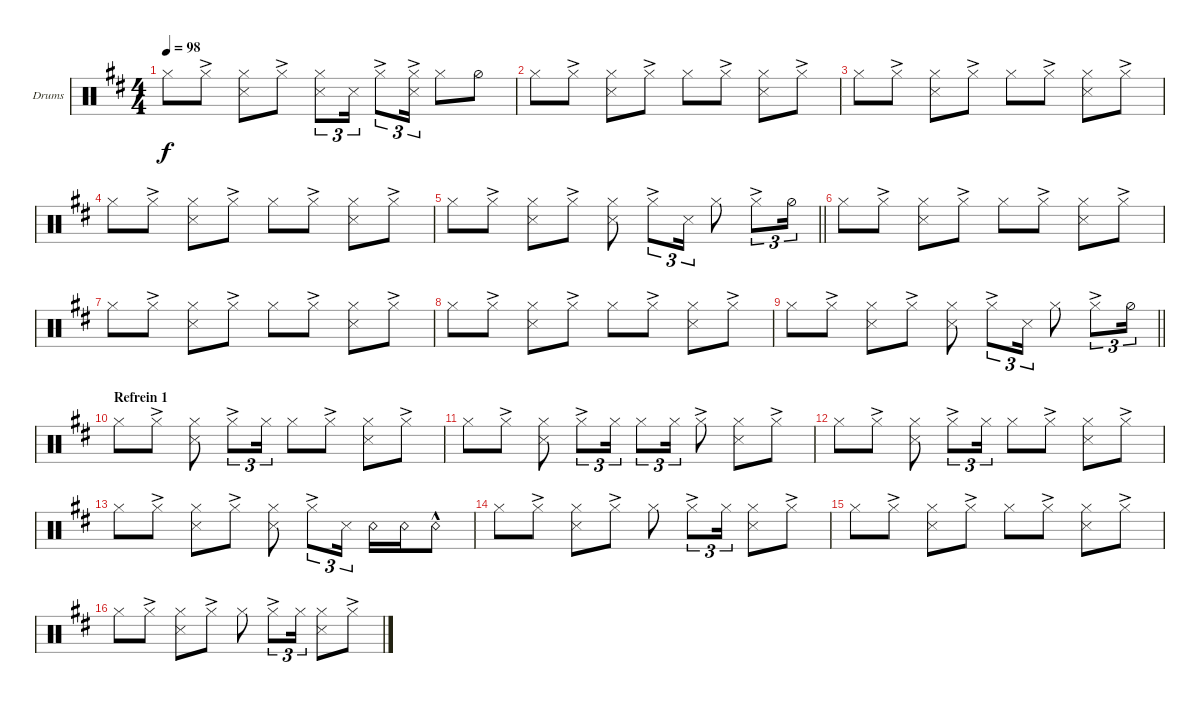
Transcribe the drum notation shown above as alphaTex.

\bracketExtendMode groupsimilarinstruments
\firstSystemTrackNameOrientation horizontal
\otherSystemsTrackNameOrientation horizontal
\track ("Drumkit" "Drums") {instrument percussion}
\staff {score}
\articulation defaults
\ts (4 4)
\tempo 98
\clef neutral
\ks d "Hi-Hat (closed)".8{dy f} "Hi-Hat (closed)"{ac}.8
("Snare (side stick) 3" "Hi-Hat (closed)").8 "Hi-Hat (closed)"{ac}.8 ("Hi-Hat (closed)" "Snare (side stick) 3").8{tu (3 2)} "Snare (side stick) 3".16{tu (3 2)} "Hi-Hat (closed)"{ac}.8{tu (3 2)} ("Hi-Hat (closed)"{ac} "Snare (side stick) 3").16{tu (3 2)} "Hi-Hat (closed)".8 "Hi-Hat (half)".8 |
"Hi-Hat (closed)".8 "Hi-Hat (closed)"{ac}.8 ("Snare (side stick) 3" "Hi-Hat (closed)").8 "Hi-Hat (closed)"{ac}.8 "Hi-Hat (closed)".8 "Hi-Hat (closed)"{ac}.8 ("Snare (side stick) 3" "Hi-Hat (closed)").8 "Hi-Hat (closed)"{ac}.8 |
"Hi-Hat (closed)".8 "Hi-Hat (closed)"{ac}.8 ("Snare (side stick) 3" "Hi-Hat (closed)").8 "Hi-Hat (closed)"{ac}.8 "Hi-Hat (closed)".8 "Hi-Hat (closed)"{ac}.8 ("Snare (side stick) 3" "Hi-Hat (closed)").8 "Hi-Hat (closed)"{ac}.8 |
"Hi-Hat (closed)".8 "Hi-Hat (closed)"{ac}.8 ("Snare (side stick) 3" "Hi-Hat (closed)").8 "Hi-Hat (closed)"{ac}.8 "Hi-Hat (closed)".8 "Hi-Hat (closed)"{ac}.8 ("Snare (side stick) 3" "Hi-Hat (closed)").8 "Hi-Hat (closed)"{ac}.8 |
\barLineRight lightlight "Hi-Hat (closed)".8 "Hi-Hat (closed)"{ac}.8
("Snare (side stick) 3" "Hi-Hat (closed)").8 "Hi-Hat (closed)"{ac}.8 ("Hi-Hat (closed)" "Snare (side stick) 3").8 "Hi-Hat (closed)"{ac}.8{tu (3 2)} "Snare (side stick) 3".16{tu (3 2)} "Hi-Hat (closed)".8 "Hi-Hat (closed)"{ac}.8{tu (3 2)} "Hi-Hat (half)".16{tu (3 2)} |
"Hi-Hat (closed)".8 "Hi-Hat (closed)"{ac}.8 ("Snare (side stick) 3" "Hi-Hat (closed)").8 "Hi-Hat (closed)"{ac}.8 "Hi-Hat (closed)".8 "Hi-Hat (closed)"{ac}.8 ("Snare (side stick) 3" "Hi-Hat (closed)").8 "Hi-Hat (closed)"{ac}.8 |
"Hi-Hat (closed)".8 "Hi-Hat (closed)"{ac}.8 ("Snare (side stick) 3" "Hi-Hat (closed)").8 "Hi-Hat (closed)"{ac}.8 "Hi-Hat (closed)".8 "Hi-Hat (closed)"{ac}.8 ("Snare (side stick) 3" "Hi-Hat (closed)").8 "Hi-Hat (closed)"{ac}.8 |
"Hi-Hat (closed)".8 "Hi-Hat (closed)"{ac}.8 ("Snare (side stick) 3" "Hi-Hat (closed)").8 "Hi-Hat (closed)"{ac}.8 "Hi-Hat (closed)".8 "Hi-Hat (closed)"{ac}.8 ("Snare (side stick) 3" "Hi-Hat (closed)").8 "Hi-Hat (closed)"{ac}.8 |
\barLineRight lightlight "Hi-Hat (closed)".8 "Hi-Hat (closed)"{ac}.8
("Snare (side stick) 3" "Hi-Hat (closed)").8 "Hi-Hat (closed)"{ac}.8 ("Hi-Hat (closed)" "Snare (side stick) 3").8 "Hi-Hat (closed)"{ac}.8{tu (3 2)} "Snare (side stick) 3".16{tu (3 2)} "Hi-Hat (closed)".8 "Hi-Hat (closed)"{ac}.8{tu (3 2)} "Hi-Hat (half)".16{tu (3 2)} |
\section ("" "Refrein 1")
"Hi-Hat (closed)".8 "Hi-Hat (closed)"{ac}.8 ("Snare (side stick) 3" "Hi-Hat (closed)").8 "Hi-Hat (closed)"{ac}.8{tu (3 2)} "Hi-Hat (closed)".16{tu (3 2)} "Hi-Hat (closed)".8 "Hi-Hat (closed)"{ac}.8 ("Snare (side stick) 3" "Hi-Hat (closed)").8 "Hi-Hat (closed)"{ac}.8 |
"Hi-Hat (closed)".8 "Hi-Hat (closed)"{ac}.8 ("Snare (side stick) 3" "Hi-Hat (closed)").8 "Hi-Hat (closed)"{ac}.8{tu (3 2)} "Hi-Hat (closed)".16{tu (3 2)} "Hi-Hat (closed)".8{tu (3 2)} "Hi-Hat (closed)".16{tu (3 2)} "Hi-Hat (closed)"{ac}.8 ("Snare (side stick) 3" "Hi-Hat (closed)").8 "Hi-Hat (closed)"{ac}.8 |
"Hi-Hat (closed)".8 "Hi-Hat (closed)"{ac}.8 ("Snare (side stick) 3" "Hi-Hat (closed)").8 "Hi-Hat (closed)"{ac}.8{tu (3 2)} "Hi-Hat (closed)".16{tu (3 2)} "Hi-Hat (closed)".8 "Hi-Hat (closed)"{ac}.8 ("Snare (side stick) 3" "Hi-Hat (closed)").8 "Hi-Hat (closed)"{ac}.8 |
"Hi-Hat (closed)".8 "Hi-Hat (closed)"{ac}.8 ("Snare (side stick) 3" "Hi-Hat (closed)").8 "Hi-Hat (closed)"{ac}.8 ("Hi-Hat (closed)" "Snare (side stick) 3").8 "Hi-Hat (closed)"{ac}.8{tu (3 2)} "Snare (side stick) 3".16{tu (3 2)} "Snare (rim shot)".16 "Snare (rim shot)".16 "Snare (rim shot)"{hac}.8 |
"Hi-Hat (closed)".8 "Hi-Hat (closed)"{ac}.8 ("Snare (side stick) 3" "Hi-Hat (closed)").8 "Hi-Hat (closed)"{ac}.8 "Hi-Hat (closed)".8 "Hi-Hat (closed)"{ac}.8{tu (3 2)} "Hi-Hat (closed)".16{tu (3 2)} ("Snare (side stick) 3" "Hi-Hat (closed)").8 "Hi-Hat (closed)"{ac}.8 |
"Hi-Hat (closed)".8 "Hi-Hat (closed)"{ac}.8 ("Snare (side stick) 3" "Hi-Hat (closed)").8 "Hi-Hat (closed)"{ac}.8 "Hi-Hat (closed)".8 "Hi-Hat (closed)"{ac}.8 ("Snare (side stick) 3" "Hi-Hat (closed)").8 "Hi-Hat (closed)"{ac}.8 |
"Hi-Hat (closed)".8 "Hi-Hat (closed)"{ac}.8 ("Snare (side stick) 3" "Hi-Hat (closed)").8 "Hi-Hat (closed)"{ac}.8 "Hi-Hat (closed)".8 "Hi-Hat (closed)"{ac}.8{tu (3 2)} "Hi-Hat (closed)".16{tu (3 2)} ("Snare (side stick) 3" "Hi-Hat (closed)").8 "Hi-Hat (closed)"{ac}.8
